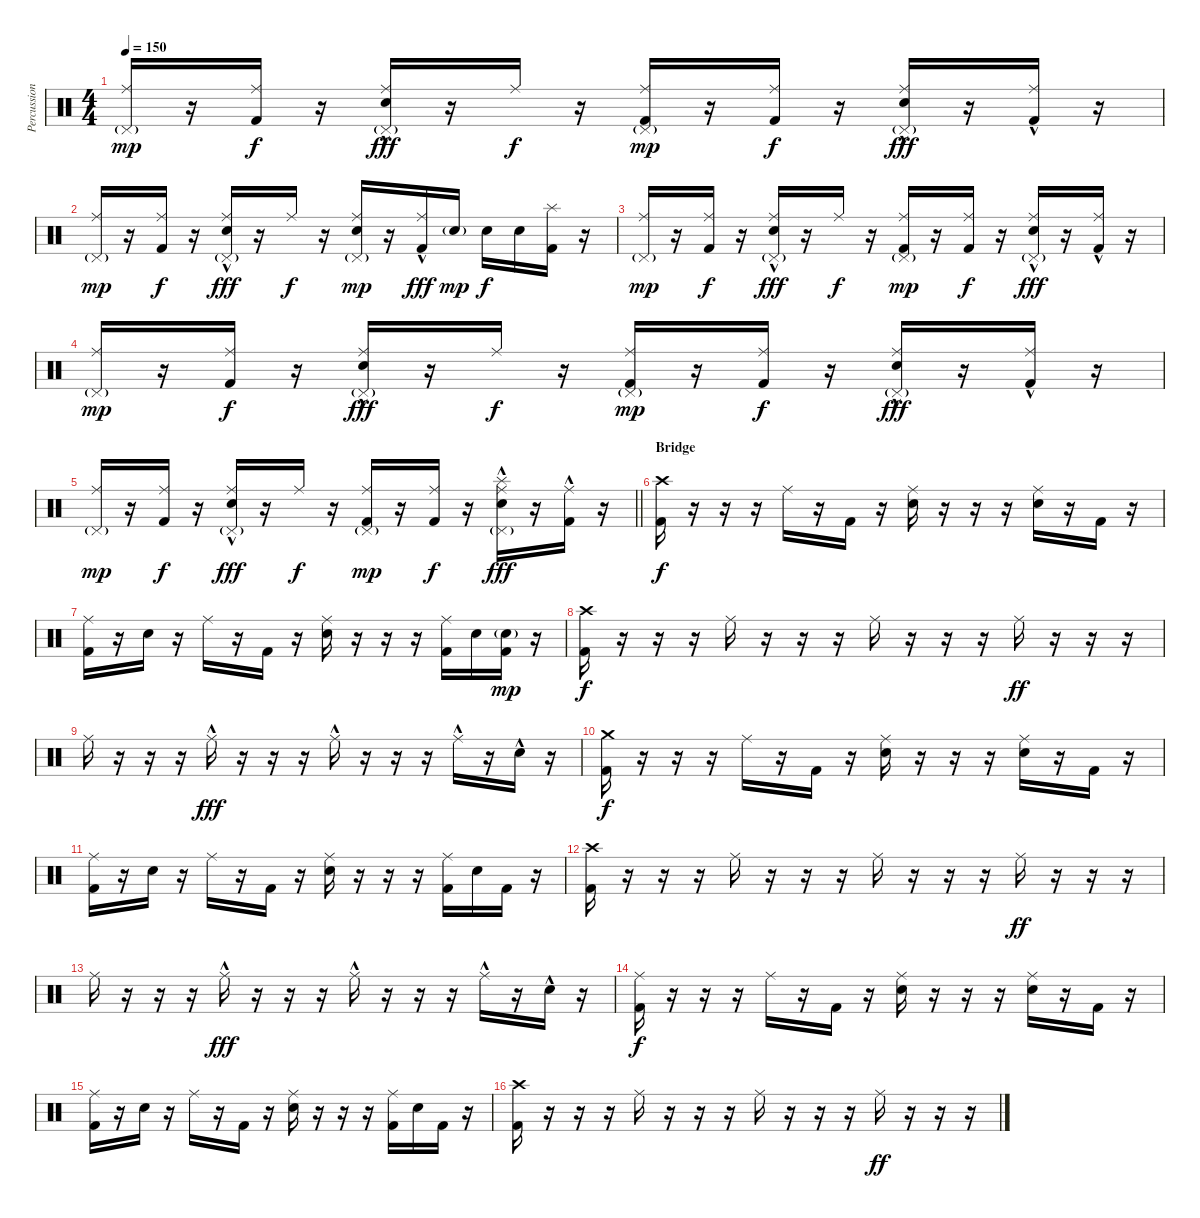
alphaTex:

\track ("Percussion" "Percussion") {instrument percussion}
\staff {score}
\articulation defaults
\ts (4 4)
\tempo 150
\clef neutral
\ks c
("Pedal Hi-Hat (hit)"{g} "Ride (middle)").16{dy mp} r.16 ("Ride (middle)" "Kick (hit) 2").16{dy f} r.16 ("Pedal Hi-Hat (hit)"{g} "Ride (middle)" "Snare (hit) 2"{hac}).16{dy fff} r.16 "Ride (middle)".16{dy f} r.16 ("Pedal Hi-Hat (hit)"{g} "Ride (middle)" "Kick (hit) 2").16{dy mp} r.16 ("Ride (middle)" "Kick (hit) 2").16{dy f} r.16 ("Pedal Hi-Hat (hit)"{g} "Ride (middle)" "Snare (hit) 2"{hac}).16{dy fff} r.16 ("Ride (middle)"{hac} "Kick (hit) 2").16 r.16 |
("Pedal Hi-Hat (hit)"{g} "Ride (middle)").16{dy mp} r.16 ("Ride (middle)" "Kick (hit) 2").16{dy f} r.16 ("Pedal Hi-Hat (hit)"{g} "Ride (middle)" "Snare (hit) 2"{hac}).16{dy fff} r.16 "Ride (middle)".16{dy f} r.16 ("Pedal Hi-Hat (hit)"{g} "Ride (middle)" "Snare (hit) 2").16{dy mp} r.16 ("Ride (middle)"{hac} "Kick (hit) 2").16{dy fff} "Snare (hit) 2"{g}.16{dy mp} "Snare (hit) 2".16{dy f} "Snare (hit) 2".16 ("Splash (hit)" "Kick (hit) 2").16 r.16 |
("Pedal Hi-Hat (hit)"{g} "Ride (middle)").16{dy mp} r.16 ("Ride (middle)" "Kick (hit) 2").16{dy f} r.16 ("Pedal Hi-Hat (hit)"{g} "Ride (middle)" "Snare (hit) 2"{hac}).16{dy fff} r.16 "Ride (middle)".16{dy f} r.16 ("Pedal Hi-Hat (hit)"{g} "Ride (middle)" "Kick (hit) 2").16{dy mp} r.16 ("Ride (middle)" "Kick (hit) 2").16{dy f} r.16 ("Pedal Hi-Hat (hit)"{g} "Ride (middle)" "Snare (hit) 2"{hac}).16{dy fff} r.16 ("Ride (middle)"{hac} "Kick (hit) 2").16 r.16 |
("Pedal Hi-Hat (hit)"{g} "Ride (middle)").16{dy mp} r.16 ("Ride (middle)" "Kick (hit) 2").16{dy f} r.16 ("Pedal Hi-Hat (hit)"{g} "Ride (middle)" "Snare (hit) 2"{hac}).16{dy fff} r.16 "Ride (middle)".16{dy f} r.16 ("Pedal Hi-Hat (hit)"{g} "Ride (middle)" "Kick (hit) 2").16{dy mp} r.16 ("Ride (middle)" "Kick (hit) 2").16{dy f} r.16 ("Pedal Hi-Hat (hit)"{g} "Ride (middle)" "Snare (hit) 2"{hac}).16{dy fff} r.16 ("Ride (middle)"{hac} "Kick (hit) 2").16 r.16 |
\barLineRight lightlight
("Pedal Hi-Hat (hit)"{g} "Ride (middle)").16{dy mp} r.16 ("Ride (middle)" "Kick (hit) 2").16{dy f} r.16 ("Pedal Hi-Hat (hit)"{g} "Ride (middle)" "Snare (hit) 2"{hac}).16{dy fff} r.16 "Ride (middle)".16{dy f} r.16 ("Pedal Hi-Hat (hit)"{g} "Ride (middle)" "Kick (hit) 2").16{dy mp} r.16 ("Ride (middle)" "Kick (hit) 2").16{dy f} r.16 ("Pedal Hi-Hat (hit)"{g} "Ride (middle)" "Splash (hit)" "Snare (hit) 2"{hac}).16{dy fff} r.16 ("Ride (middle)"{hac} "Kick (hit) 2").16 r.16 |
\section ("" "Bridge")
("Crash high (hit)" "Kick (hit) 2").16{dy f} r.16 r.16 r.16 "Ride (middle)".16 r.16 "Kick (hit) 2".16 r.16 ("Ride (middle)" "Snare (hit) 2").16 r.16 r.16 r.16 ("Ride (middle)" "Snare (hit) 2").16 r.16 "Kick (hit) 2".16 r.16 |
("Ride (middle)" "Kick (hit) 2").16 r.16 "Snare (hit) 2".16 r.16 "Ride (middle)".16 r.16 "Kick (hit) 2".16 r.16 ("Ride (middle)" "Snare (hit) 2").16 r.16 r.16 r.16 ("Ride (middle)" "Kick (hit) 2").16 "Snare (hit) 2".16 ("Snare (hit) 2"{g} "Kick (hit) 2").16{dy mp} r.16 |
("Crash high (hit)" "Kick (hit) 2").16{dy f} r.16 r.16 r.16 "Ride (middle)".16 r.16 r.16 r.16 "Ride (middle)".16 r.16 r.16 r.16 "Ride (middle)".16{dy ff} r.16 r.16 r.16 |
"Ride (middle)".16 r.16 r.16 r.16 "Ride (middle)"{hac}.16{dy fff} r.16 r.16 r.16 "Ride (middle)"{hac}.16 r.16 r.16 r.16 "Ride (middle)"{hac}.16 r.16 "Snare (hit) 2"{hac}.16 r.16 |
("Crash medium (hit)" "Kick (hit) 2").16{dy f} r.16 r.16 r.16 "Ride (middle)".16 r.16 "Kick (hit) 2".16 r.16 ("Ride (middle)" "Snare (hit) 2").16 r.16 r.16 r.16 ("Ride (middle)" "Snare (hit) 2").16 r.16 "Kick (hit) 2".16 r.16 |
("Ride (middle)" "Kick (hit) 2").16 r.16 "Snare (hit) 2".16 r.16 "Ride (middle)".16 r.16 "Kick (hit) 2".16 r.16 ("Ride (middle)" "Snare (hit) 2").16 r.16 r.16 r.16 ("Ride (middle)" "Kick (hit) 2").16 "Snare (hit) 2".16 "Kick (hit) 2".16 r.16 |
("Crash high (hit)" "Kick (hit) 2").16 r.16 r.16 r.16 "Ride (middle)".16 r.16 r.16 r.16 "Ride (middle)".16 r.16 r.16 r.16 "Ride (middle)".16{dy ff} r.16 r.16 r.16 |
"Ride (middle)".16 r.16 r.16 r.16 "Ride (middle)"{hac}.16{dy fff} r.16 r.16 r.16 "Ride (middle)"{hac}.16 r.16 r.16 r.16 "Ride (middle)"{hac}.16 r.16 "Snare (hit) 2"{hac}.16 r.16 |
("Ride (middle)" "Kick (hit) 2").16{dy f} r.16 r.16 r.16 "Ride (middle)".16 r.16 "Kick (hit) 2".16 r.16 ("Ride (middle)" "Snare (hit) 2").16 r.16 r.16 r.16 ("Ride (middle)" "Snare (hit) 2").16 r.16 "Kick (hit) 2".16 r.16 |
("Ride (middle)" "Kick (hit) 2").16 r.16 "Snare (hit) 2".16 r.16 "Ride (middle)".16 r.16 "Kick (hit) 2".16 r.16 ("Ride (middle)" "Snare (hit) 2").16 r.16 r.16 r.16 ("Ride (middle)" "Kick (hit) 2").16 "Snare (hit) 2".16 "Kick (hit) 2".16 r.16 |
("Crash high (hit)" "Kick (hit) 2").16 r.16 r.16 r.16 "Ride (middle)".16 r.16 r.16 r.16 "Ride (middle)".16 r.16 r.16 r.16 "Ride (middle)".16{dy ff} r.16 r.16 r.16
